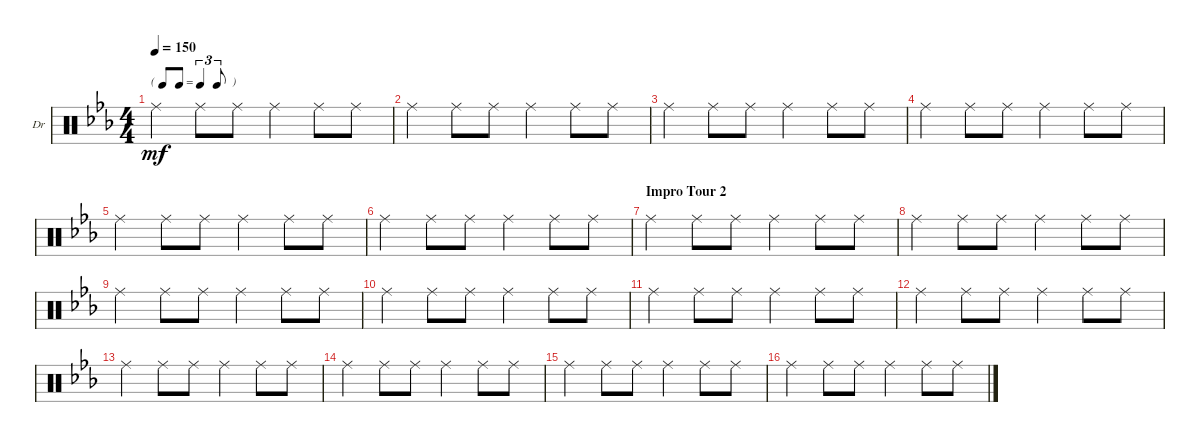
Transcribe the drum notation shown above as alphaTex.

\defaultSystemsLayout 4
\bracketExtendMode nobrackets
\firstSystemTrackNameOrientation horizontal
\otherSystemsTrackNameOrientation horizontal
\chordDiagramsInScore
\track ("Drums" "Dr") {instrument percussion}
\staff {score}
\articulation defaults
\ts (4 4)
\tf triplet8th
\tempo 150
\clef neutral
\ks cminor "Ride (middle)".4{dy mf} "Ride (middle)".8 "Ride (middle)".8 "Ride (middle)".4 "Ride (middle)".8 "Ride (middle)".8
|
"Ride (middle)".4 "Ride (middle)".8 "Ride (middle)".8 "Ride (middle)".4 "Ride (middle)".8 "Ride (middle)".8 |
"Ride (middle)".4 "Ride (middle)".8 "Ride (middle)".8 "Ride (middle)".4 "Ride (middle)".8 "Ride (middle)".8 |
"Ride (middle)".4 "Ride (middle)".8 "Ride (middle)".8 "Ride (middle)".4 "Ride (middle)".8 "Ride (middle)".8 |
"Ride (middle)".4 "Ride (middle)".8 "Ride (middle)".8 "Ride (middle)".4 "Ride (middle)".8 "Ride (middle)".8 |
"Ride (middle)".4 "Ride (middle)".8 "Ride (middle)".8 "Ride (middle)".4 "Ride (middle)".8 "Ride (middle)".8 |
\section ("" "Impro Tour 2")
"Ride (middle)".4 "Ride (middle)".8 "Ride (middle)".8 "Ride (middle)".4 "Ride (middle)".8 "Ride (middle)".8 |
"Ride (middle)".4 "Ride (middle)".8 "Ride (middle)".8 "Ride (middle)".4 "Ride (middle)".8 "Ride (middle)".8 |
"Ride (middle)".4 "Ride (middle)".8 "Ride (middle)".8 "Ride (middle)".4 "Ride (middle)".8 "Ride (middle)".8 |
"Ride (middle)".4 "Ride (middle)".8 "Ride (middle)".8 "Ride (middle)".4 "Ride (middle)".8 "Ride (middle)".8 |
"Ride (middle)".4 "Ride (middle)".8 "Ride (middle)".8 "Ride (middle)".4 "Ride (middle)".8 "Ride (middle)".8 |
"Ride (middle)".4 "Ride (middle)".8 "Ride (middle)".8 "Ride (middle)".4 "Ride (middle)".8 "Ride (middle)".8 |
"Ride (middle)".4 "Ride (middle)".8 "Ride (middle)".8 "Ride (middle)".4 "Ride (middle)".8 "Ride (middle)".8 |
"Ride (middle)".4 "Ride (middle)".8 "Ride (middle)".8 "Ride (middle)".4 "Ride (middle)".8 "Ride (middle)".8 |
"Ride (middle)".4 "Ride (middle)".8 "Ride (middle)".8 "Ride (middle)".4 "Ride (middle)".8 "Ride (middle)".8 |
"Ride (middle)".4 "Ride (middle)".8 "Ride (middle)".8 "Ride (middle)".4 "Ride (middle)".8 "Ride (middle)".8
